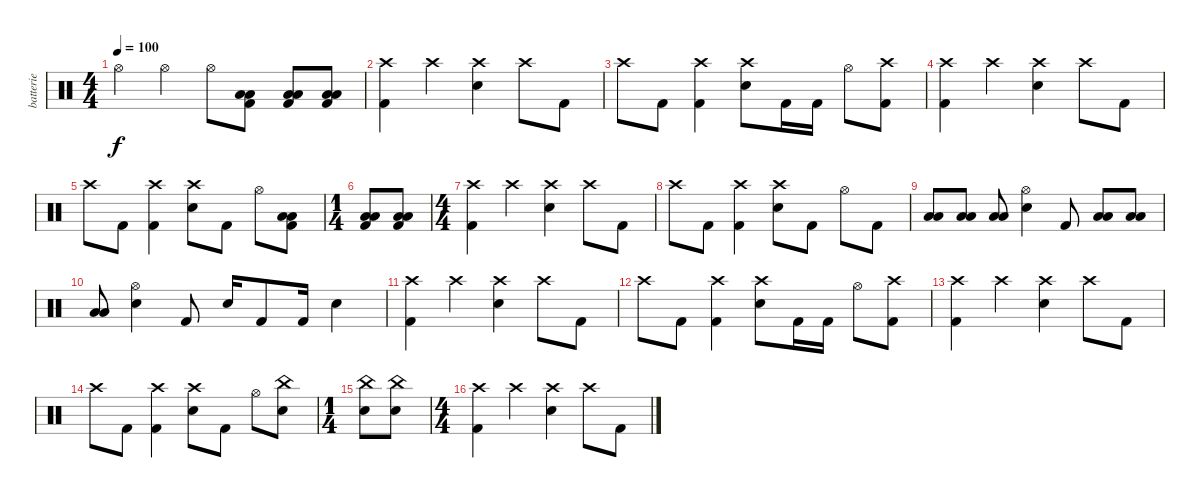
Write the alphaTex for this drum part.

\track ("batterie" "batterie") {instrument percussion}
\staff {score}
\articulation defaults
\ts (4 4)
\tempo 100
\clef neutral
\ks c "Hi-Hat (open)".4{dy f} "Hi-Hat (open)".4 "Hi-Hat (open)".8
("Low Tom (hit)" "Kick (hit) 2" "Low Floor Tom (hit)").8 ("Low Tom (hit)" "Kick (hit) 2" "Low Floor Tom (hit)").8 ("Low Tom (hit)" "Kick (hit) 2" "Low Floor Tom (hit)").8 |
("Crash high (hit)" "Kick (hit) 2").4 "Crash high (hit)".4 ("Crash high (hit)" "Electric Snare (hit)").4 "Crash high (hit)".8 "Kick (hit) 2".8 |
"Crash high (hit)".8 "Kick (hit) 2".8 ("Crash high (hit)" "Kick (hit) 2").4 ("Crash high (hit)" "Electric Snare (hit)").8 "Kick (hit) 2".16 "Kick (hit) 2".16 "Hi-Hat (open)".8 ("Crash high (hit)" "Kick (hit) 2").8 |
("Crash high (hit)" "Kick (hit) 2").4 "Crash high (hit)".4 ("Crash high (hit)" "Electric Snare (hit)").4 "Crash high (hit)".8 "Kick (hit) 2".8 |
"Crash high (hit)".8 "Kick (hit) 2".8 ("Crash high (hit)" "Kick (hit) 2").4 ("Crash high (hit)" "Electric Snare (hit)").8 "Kick (hit) 2".8 "Hi-Hat (open)".8 ("Low Tom (hit)" "Low Floor Tom (hit)" "Kick (hit) 2").8 |
\ts (1 4)
("Low Tom (hit)" "Low Floor Tom (hit)" "Kick (hit) 2").8 ("Low Tom (hit)" "Low Floor Tom (hit)" "Kick (hit) 2").8 |
\ts (4 4)
("Crash high (hit)" "Kick (hit) 2").4 "Crash high (hit)".4 ("Crash high (hit)" "Electric Snare (hit)").4 "Crash high (hit)".8 "Kick (hit) 2".8 |
"Crash high (hit)".8 "Kick (hit) 2".8 ("Crash high (hit)" "Kick (hit) 2").4 ("Crash high (hit)" "Electric Snare (hit)").8 "Kick (hit) 2".8 "Hi-Hat (open)".8 "Kick (hit) 2".8 |
("Low Tom (hit)" "Low Floor Tom (hit)").8 ("Low Tom (hit)" "Low Floor Tom (hit)").8 ("Low Tom (hit)" "Low Floor Tom (hit)").8 ("Hi-Hat (open)" "Electric Snare (hit)").4 "Kick (hit) 2".8 ("Low Tom (hit)" "Low Floor Tom (hit)").8 ("Low Tom (hit)" "Low Floor Tom (hit)").8 |
("Low Tom (hit)" "Low Floor Tom (hit)").8 ("Hi-Hat (open)" "Electric Snare (hit)").4 "Kick (hit) 2".8 "Electric Snare (hit)".16 "Kick (hit) 2".8 "Kick (hit) 2".16 "Electric Snare (hit)".4 |
("Crash high (hit)" "Kick (hit) 2").4 "Crash high (hit)".4 ("Crash high (hit)" "Electric Snare (hit)").4 "Crash high (hit)".8 "Kick (hit) 2".8 |
"Crash high (hit)".8 "Kick (hit) 2".8 ("Crash high (hit)" "Kick (hit) 2").4 ("Crash high (hit)" "Electric Snare (hit)").8 "Kick (hit) 2".16 "Kick (hit) 2".16 "Hi-Hat (open)".8 ("Crash high (hit)" "Kick (hit) 2").8 |
("Crash high (hit)" "Kick (hit) 2").4 "Crash high (hit)".4 ("Crash high (hit)" "Electric Snare (hit)").4 "Crash high (hit)".8 "Kick (hit) 2".8 |
"Crash high (hit)".8 "Kick (hit) 2".8 ("Crash high (hit)" "Kick (hit) 2").4 ("Crash high (hit)" "Electric Snare (hit)").8 "Kick (hit) 2".8 "Hi-Hat (open)".8 ("China (hit)" "Electric Snare (hit)").8 |
\ts (1 4)
("China (hit)" "Electric Snare (hit)").8 ("China (hit)" "Electric Snare (hit)").8 |
\ts (4 4)
("Crash high (hit)" "Kick (hit) 2").4 "Crash high (hit)".4 ("Crash high (hit)" "Electric Snare (hit)").4 "Crash high (hit)".8 "Kick (hit) 2".8
